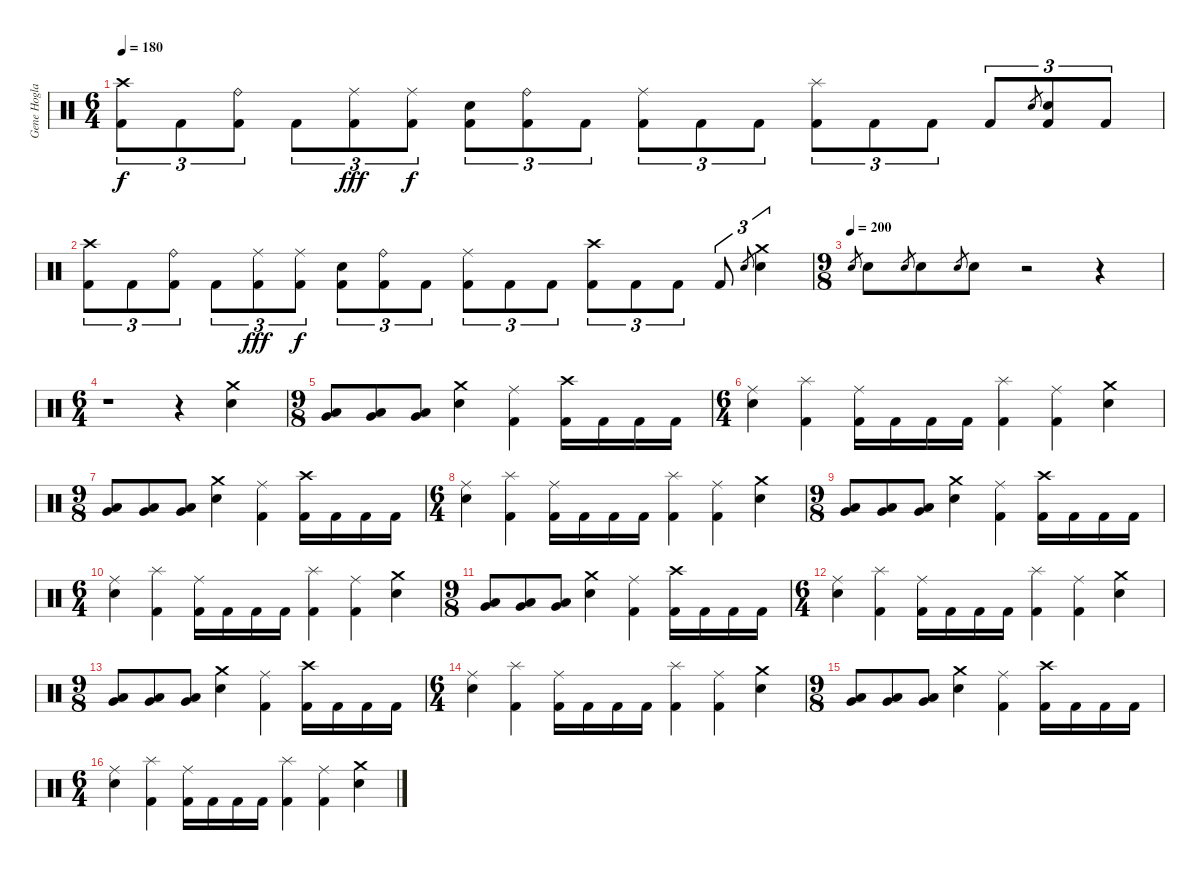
\track ("Gene Hoglan" "Gene Hogla") {instrument percussion}
\staff {score}
\articulation defaults
\ts (6 4)
\tempo 180
\clef neutral
\ks c
("Crash high (hit)" "Kick (hit) 2").8{tu (3 2) dy f} "Kick (hit) 2".8{tu (3 2)} ("Ride (bell)" "Kick (hit) 2").8{tu (3 2)} "Kick (hit) 2".8{tu (3 2)} ("Ride (middle)" "Kick (hit) 2").8{tu (3 2) dy fff} ("Ride (middle)" "Kick (hit) 2").8{tu (3 2) dy f} ("Electric Snare (hit)" "Kick (hit) 2").8{tu (3 2)} ("Ride (bell)" "Kick (hit) 2").8{tu (3 2)} "Kick (hit) 2".8{tu (3 2)} ("Ride (middle)" "Kick (hit) 2").8{tu (3 2)} "Kick (hit) 2".8{tu (3 2)} "Kick (hit) 2".8{tu (3 2)} ("Splash (hit)" "Kick (hit) 2").8{tu (3 2)} "Kick (hit) 2".8{tu (3 2)} "Kick (hit) 2".8{tu (3 2)} "Kick (hit) 2".8{tu (3 2)} "Electric Snare (hit)".8{gr} ("Electric Snare (hit)" "Kick (hit) 2").8{tu (3 2)} "Kick (hit) 2".8{tu (3 2)} |
("Crash high (hit)" "Kick (hit) 2").8{tu (3 2)} "Kick (hit) 2".8{tu (3 2)} ("Ride (bell)" "Kick (hit) 2").8{tu (3 2)} "Kick (hit) 2".8{tu (3 2)} ("Ride (middle)" "Kick (hit) 2").8{tu (3 2) dy fff} ("Ride (middle)" "Kick (hit) 2").8{tu (3 2) dy f} ("Electric Snare (hit)" "Kick (hit) 2").8{tu (3 2)} ("Ride (bell)" "Kick (hit) 2").8{tu (3 2)} "Kick (hit) 2".8{tu (3 2)} ("Ride (middle)" "Kick (hit) 2").8{tu (3 2)} "Kick (hit) 2".8{tu (3 2)} "Kick (hit) 2".8{tu (3 2)} ("Crash high (hit)" "Kick (hit) 2").8{tu (3 2)} "Kick (hit) 2".8{tu (3 2)} "Kick (hit) 2".8{tu (3 2)} "Kick (hit) 2".8{tu (3 2)} "Electric Snare (hit)".8{gr} ("Crash medium (hit)" "Electric Snare (hit)").4{tu (3 2)} |
\ts (9 8)
\tempo (200)
"Electric Snare (hit)".8{gr} "Electric Snare (hit)".8 "Electric Snare (hit)".8{gr} "Electric Snare (hit)".8 "Electric Snare (hit)".8{gr} "Electric Snare (hit)".8 r.2 r.4 |
\ts (6 4)
r.1 r.4 ("Crash medium (hit)" "Electric Snare (hit)").4 |
\ts (9 8)
("Low Tom (hit)" "Very Low Tom (hit)").8 ("Low Tom (hit)" "Very Low Tom (hit)").8 ("Low Tom (hit)" "Very Low Tom (hit)").8 ("Crash medium (hit)" "Electric Snare (hit)").4 ("Ride (middle)" "Kick (hit) 2").4 ("Crash high (hit)" "Kick (hit) 2").16 "Kick (hit) 2".16 "Kick (hit) 2".16 "Kick (hit) 2".16 |
\ts (6 4)
("Ride (middle)" "Electric Snare (hit)").4 ("Splash (hit)" "Kick (hit) 2").4 ("Ride (middle)" "Kick (hit) 2").16 "Kick (hit) 2".16 "Kick (hit) 2".16 "Kick (hit) 2".16 ("Splash (hit)" "Kick (hit) 2").4 ("Ride (middle)" "Kick (hit) 2").4 ("Crash medium (hit)" "Electric Snare (hit)").4 |
\ts (9 8)
("Low Tom (hit)" "Very Low Tom (hit)").8 ("Low Tom (hit)" "Very Low Tom (hit)").8 ("Low Tom (hit)" "Very Low Tom (hit)").8 ("Crash medium (hit)" "Electric Snare (hit)").4 ("Ride (middle)" "Kick (hit) 2").4 ("Crash high (hit)" "Kick (hit) 2").16 "Kick (hit) 2".16 "Kick (hit) 2".16 "Kick (hit) 2".16 |
\ts (6 4)
("Ride (middle)" "Electric Snare (hit)").4 ("Splash (hit)" "Kick (hit) 2").4 ("Ride (middle)" "Kick (hit) 2").16 "Kick (hit) 2".16 "Kick (hit) 2".16 "Kick (hit) 2".16 ("Splash (hit)" "Kick (hit) 2").4 ("Ride (middle)" "Kick (hit) 2").4 ("Crash medium (hit)" "Electric Snare (hit)").4 |
\ts (9 8)
("Low Tom (hit)" "Very Low Tom (hit)").8 ("Low Tom (hit)" "Very Low Tom (hit)").8 ("Low Tom (hit)" "Very Low Tom (hit)").8 ("Crash medium (hit)" "Electric Snare (hit)").4 ("Ride (middle)" "Kick (hit) 2").4 ("Crash high (hit)" "Kick (hit) 2").16 "Kick (hit) 2".16 "Kick (hit) 2".16 "Kick (hit) 2".16 |
\ts (6 4)
("Ride (middle)" "Electric Snare (hit)").4 ("Splash (hit)" "Kick (hit) 2").4 ("Ride (middle)" "Kick (hit) 2").16 "Kick (hit) 2".16 "Kick (hit) 2".16 "Kick (hit) 2".16 ("Splash (hit)" "Kick (hit) 2").4 ("Ride (middle)" "Kick (hit) 2").4 ("Crash medium (hit)" "Electric Snare (hit)").4 |
\ts (9 8)
("Low Tom (hit)" "Very Low Tom (hit)").8 ("Low Tom (hit)" "Very Low Tom (hit)").8 ("Low Tom (hit)" "Very Low Tom (hit)").8 ("Crash medium (hit)" "Electric Snare (hit)").4 ("Ride (middle)" "Kick (hit) 2").4 ("Crash high (hit)" "Kick (hit) 2").16 "Kick (hit) 2".16 "Kick (hit) 2".16 "Kick (hit) 2".16 |
\ts (6 4)
("Ride (middle)" "Electric Snare (hit)").4 ("Splash (hit)" "Kick (hit) 2").4 ("Ride (middle)" "Kick (hit) 2").16 "Kick (hit) 2".16 "Kick (hit) 2".16 "Kick (hit) 2".16 ("Splash (hit)" "Kick (hit) 2").4 ("Ride (middle)" "Kick (hit) 2").4 ("Crash medium (hit)" "Electric Snare (hit)").4 |
\ts (9 8)
("Low Tom (hit)" "Very Low Tom (hit)").8 ("Low Tom (hit)" "Very Low Tom (hit)").8 ("Low Tom (hit)" "Very Low Tom (hit)").8 ("Crash medium (hit)" "Electric Snare (hit)").4 ("Ride (middle)" "Kick (hit) 2").4 ("Crash high (hit)" "Kick (hit) 2").16 "Kick (hit) 2".16 "Kick (hit) 2".16 "Kick (hit) 2".16 |
\ts (6 4)
("Ride (middle)" "Electric Snare (hit)").4 ("Splash (hit)" "Kick (hit) 2").4 ("Ride (middle)" "Kick (hit) 2").16 "Kick (hit) 2".16 "Kick (hit) 2".16 "Kick (hit) 2".16 ("Splash (hit)" "Kick (hit) 2").4 ("Ride (middle)" "Kick (hit) 2").4 ("Crash medium (hit)" "Electric Snare (hit)").4 |
\ts (9 8)
("Low Tom (hit)" "Very Low Tom (hit)").8 ("Low Tom (hit)" "Very Low Tom (hit)").8 ("Low Tom (hit)" "Very Low Tom (hit)").8 ("Crash medium (hit)" "Electric Snare (hit)").4 ("Ride (middle)" "Kick (hit) 2").4 ("Crash high (hit)" "Kick (hit) 2").16 "Kick (hit) 2".16 "Kick (hit) 2".16 "Kick (hit) 2".16 |
\ts (6 4)
("Ride (middle)" "Electric Snare (hit)").4 ("Splash (hit)" "Kick (hit) 2").4 ("Ride (middle)" "Kick (hit) 2").16 "Kick (hit) 2".16 "Kick (hit) 2".16 "Kick (hit) 2".16 ("Splash (hit)" "Kick (hit) 2").4 ("Ride (middle)" "Kick (hit) 2").4 ("Crash medium (hit)" "Electric Snare (hit)").4
